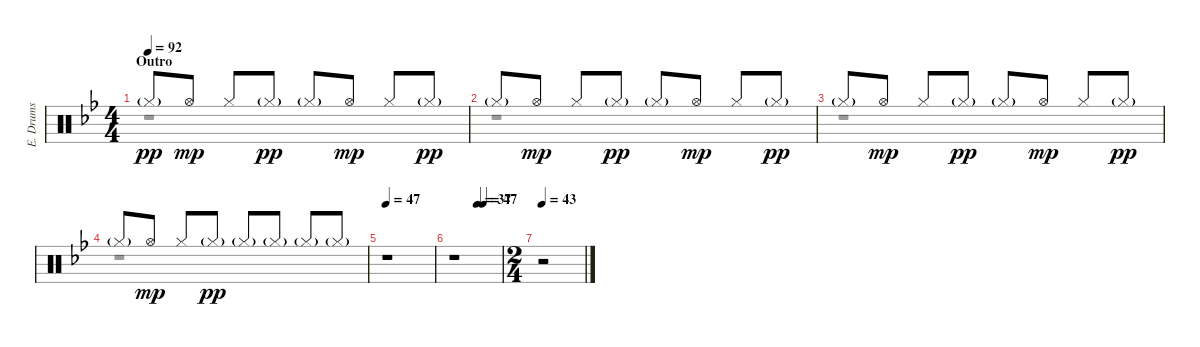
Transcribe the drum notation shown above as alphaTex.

\track ("E. Drums" "E. Drums") {instrument percussion}
\staff {score}
\articulation defaults
\voice
\ts (4 4)
\section ("" "Outro")
\tempo 92
\clef neutral
\ks bb "Hi-Hat (closed)"{g}.8{dy pp} "Hi-Hat (open)".8{dy mp} "Hi-Hat (closed)".8 "Hi-Hat (closed)"{g}.8{dy pp} "Hi-Hat (closed)"{g}.8 "Hi-Hat (open)".8{dy mp} "Hi-Hat (closed)".8 "Hi-Hat (closed)"{g}.8{dy pp}
|
"Hi-Hat (closed)"{g}.8 "Hi-Hat (open)".8{dy mp} "Hi-Hat (closed)".8 "Hi-Hat (closed)"{g}.8{dy pp} "Hi-Hat (closed)"{g}.8 "Hi-Hat (open)".8{dy mp} "Hi-Hat (closed)".8 "Hi-Hat (closed)"{g}.8{dy pp} |
"Hi-Hat (closed)"{g}.8 "Hi-Hat (open)".8{dy mp} "Hi-Hat (closed)".8 "Hi-Hat (closed)"{g}.8{dy pp} "Hi-Hat (closed)"{g}.8 "Hi-Hat (open)".8{dy mp} "Hi-Hat (closed)".8 "Hi-Hat (closed)"{g}.8{dy pp} |
"Hi-Hat (closed)"{g}.8 "Hi-Hat (open)".8{dy mp} "Hi-Hat (closed)".8 "Hi-Hat (closed)"{g}.8{dy pp} "Hi-Hat (closed)"{g}.8 "Hi-Hat (closed)"{g}.8 "Hi-Hat (closed)"{g}.8 "Hi-Hat (closed)"{g}.8 |
\tempo 47
r.1 |
\tempo (37 0.5)
\tempo (47 0.625)
r.1 |
\ts (2 4)
\tempo 43
r.2
\voice
\clef neutral
\ottava regular
\simile none
\ks bb
r.1{dy mp} |
r.1 |
r.1 |
r.1 |
r.1 |
r.1 |
r.2
